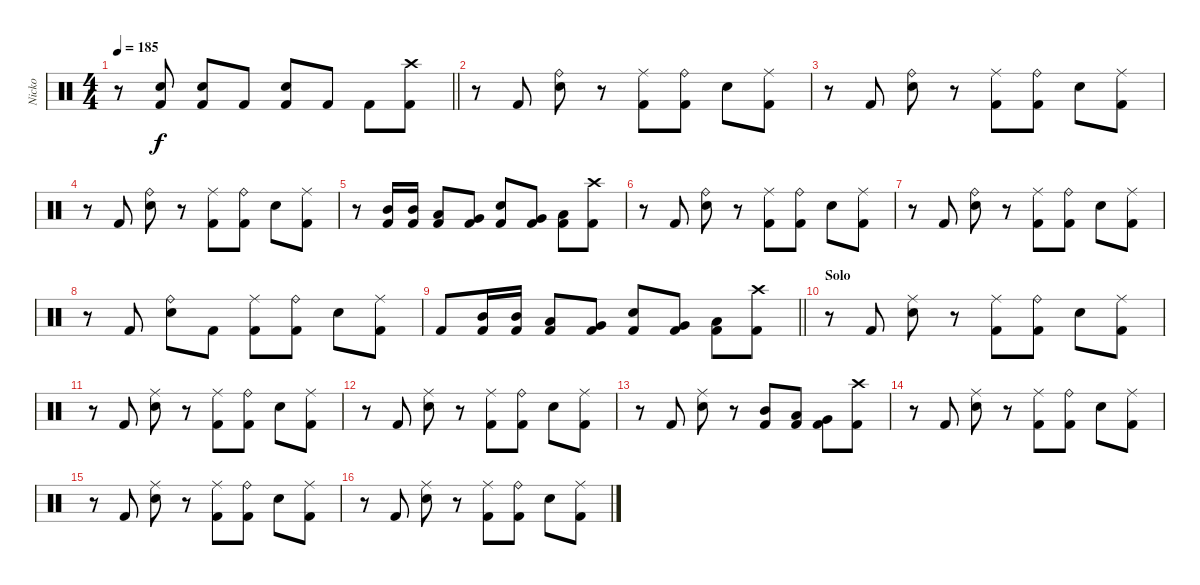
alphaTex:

\track ("Nicko" "Nicko") {instrument percussion}
\staff {score}
\articulation defaults
\ts (4 4)
\tempo 185
\clef neutral
\barLineRight lightlight
\ks c
r.8{dy f} ("Snare (hit) 2" "Kick (hit) 2").8 ("Snare (hit) 2" "Kick (hit) 2").8 "Kick (hit) 2".8 ("Snare (hit) 2" "Kick (hit) 2").8 "Kick (hit) 2".8 "Kick (hit) 2".8 ("Crash high (hit)" "Kick (hit) 2").8 |
r.8 "Kick (hit) 2".8 ("Ride (bell)" "Snare (hit) 2").8 r.8 ("Ride (middle)" "Kick (hit) 2").8 ("Ride (bell)" "Kick (hit) 2").8 "Snare (hit) 2".8 ("Ride (middle)" "Kick (hit) 2").8 |
r.8 "Kick (hit) 2".8 ("Ride (bell)" "Snare (hit) 2").8 r.8 ("Ride (middle)" "Kick (hit) 2").8 ("Ride (bell)" "Kick (hit) 2").8 "Snare (hit) 2".8 ("Ride (middle)" "Kick (hit) 2").8 |
r.8 "Kick (hit) 2".8 ("Ride (bell)" "Snare (hit) 2").8 r.8 ("Ride (middle)" "Kick (hit) 2").8 ("Ride (bell)" "Kick (hit) 2").8 "Snare (hit) 2".8 ("Ride (middle)" "Kick (hit) 2").8 |
r.8 ("Mid Tom (hit)" "Kick (hit) 2").16 ("Mid Tom (hit)" "Kick (hit) 2").16 ("Low Tom (hit)" "Kick (hit) 2").8 ("Very Low Tom (hit)" "Kick (hit) 2").8 ("Snare (hit) 2" "Kick (hit) 2").8 ("Very Low Tom (hit)" "Kick (hit) 2").8 ("Low Floor Tom (hit)" "Kick (hit) 2").8 ("Crash high (hit)" "Kick (hit) 2").8 |
r.8 "Kick (hit) 2".8 ("Ride (bell)" "Snare (hit) 2").8 r.8 ("Ride (middle)" "Kick (hit) 2").8 ("Ride (bell)" "Kick (hit) 2").8 "Snare (hit) 2".8 ("Ride (middle)" "Kick (hit) 2").8 |
r.8 "Kick (hit) 2".8 ("Ride (bell)" "Snare (hit) 2").8 r.8 ("Ride (middle)" "Kick (hit) 2").8 ("Ride (bell)" "Kick (hit) 2").8 "Snare (hit) 2".8 ("Ride (middle)" "Kick (hit) 2").8 |
r.8 "Kick (hit) 2".8 ("Ride (bell)" "Snare (hit) 2").8 "Kick (hit) 2".8 ("Ride (middle)" "Kick (hit) 2").8 ("Ride (bell)" "Kick (hit) 2").8 "Snare (hit) 2".8 ("Ride (middle)" "Kick (hit) 2").8 |
\barLineRight lightlight "Kick (hit) 2".8
("Mid Tom (hit)" "Kick (hit) 2").16 ("Mid Tom (hit)" "Kick (hit) 2").16 ("Low Tom (hit)" "Kick (hit) 2").8 ("Very Low Tom (hit)" "Kick (hit) 2").8 ("Snare (hit) 2" "Kick (hit) 2").8 ("Very Low Tom (hit)" "Kick (hit) 2").8 ("Low Floor Tom (hit)" "Kick (hit) 2").8 ("Crash high (hit)" "Kick (hit) 2").8 |
\section ("" "Solo")
r.8 "Kick (hit) 2".8 ("Ride (middle)" "Snare (hit) 2").8 r.8 ("Ride (middle)" "Kick (hit) 2").8 ("Ride (bell)" "Kick (hit) 2").8 "Snare (hit) 2".8 ("Ride (middle)" "Kick (hit) 2").8 |
r.8 "Kick (hit) 2".8 ("Ride (middle)" "Snare (hit) 2").8 r.8 ("Ride (middle)" "Kick (hit) 2").8 ("Ride (bell)" "Kick (hit) 2").8 "Snare (hit) 2".8 ("Ride (middle)" "Kick (hit) 2").8 |
r.8 "Kick (hit) 2".8 ("Ride (middle)" "Snare (hit) 2").8 r.8 ("Ride (middle)" "Kick (hit) 2").8 ("Ride (bell)" "Kick (hit) 2").8 "Snare (hit) 2".8 ("Ride (middle)" "Kick (hit) 2").8 |
r.8 "Kick (hit) 2".8 ("Ride (middle)" "Snare (hit) 2").8 r.8 ("Mid Tom (hit)" "Kick (hit) 2").8 ("Low Tom (hit)" "Kick (hit) 2").8 ("Very Low Tom (hit)" "Kick (hit) 2").8 ("Crash high (hit)" "Kick (hit) 2").8 |
r.8 "Kick (hit) 2".8 ("Ride (middle)" "Snare (hit) 2").8 r.8 ("Ride (middle)" "Kick (hit) 2").8 ("Ride (bell)" "Kick (hit) 2").8 "Snare (hit) 2".8 ("Ride (middle)" "Kick (hit) 2").8 |
r.8 "Kick (hit) 2".8 ("Ride (middle)" "Snare (hit) 2").8 r.8 ("Ride (middle)" "Kick (hit) 2").8 ("Ride (bell)" "Kick (hit) 2").8 "Snare (hit) 2".8 ("Ride (middle)" "Kick (hit) 2").8 |
r.8 "Kick (hit) 2".8 ("Ride (middle)" "Snare (hit) 2").8 r.8 ("Ride (middle)" "Kick (hit) 2").8 ("Ride (bell)" "Kick (hit) 2").8 "Snare (hit) 2".8 ("Ride (middle)" "Kick (hit) 2").8
